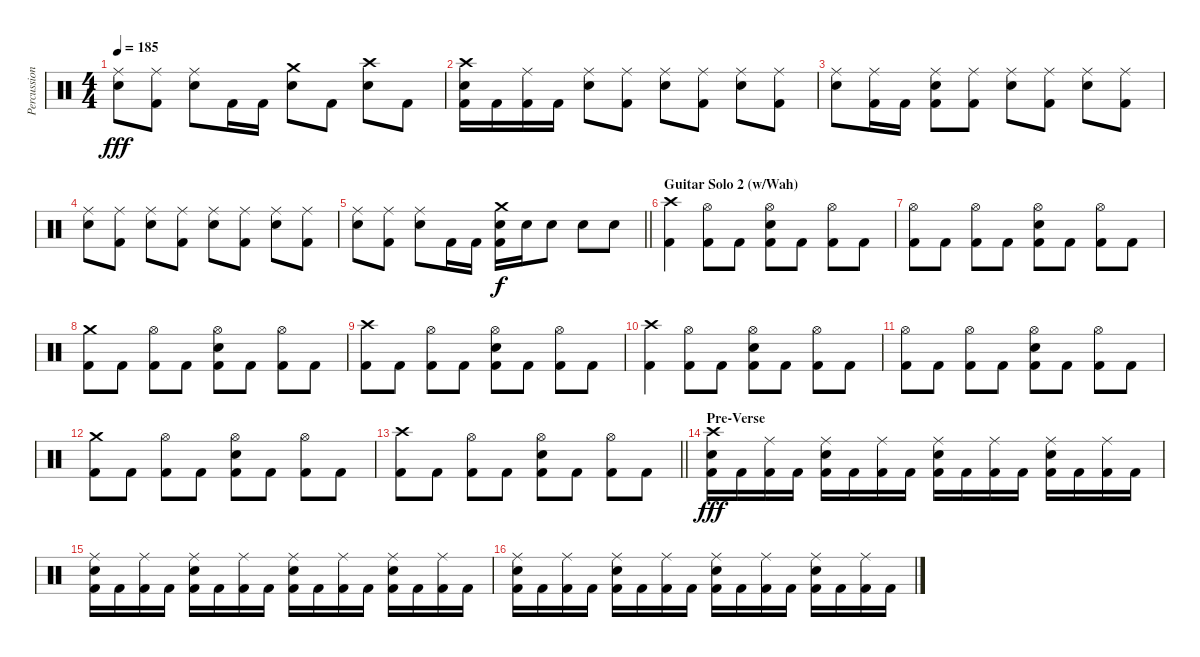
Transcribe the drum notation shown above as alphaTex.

\track ("Percussion" "Percussion") {instrument percussion}
\staff {score}
\articulation defaults
\ts (4 4)
\tempo 185
\clef neutral
\ks c
("Ride (middle)" "Electric Snare (hit)").8{dy fff} ("Ride (middle)" "Kick (hit) 2").8 ("Ride (middle)" "Electric Snare (hit)").8 "Kick (hit) 2".16 "Kick (hit) 2".16 ("Crash medium (hit)" "Electric Snare (hit)").8 "Kick (hit) 2".8 ("Crash high (hit)" "Electric Snare (hit)").8 "Kick (hit) 2".8 |
("Crash high (hit)" "Electric Snare (hit)" "Kick (hit) 2").16 "Kick (hit) 2".16 ("Ride (middle)" "Kick (hit) 2").16 "Kick (hit) 2".16 ("Ride (middle)" "Electric Snare (hit)").8 ("Ride (middle)" "Kick (hit) 2").8 ("Ride (middle)" "Electric Snare (hit)").8 ("Ride (middle)" "Kick (hit) 2").8 ("Ride (middle)" "Electric Snare (hit)").8 ("Ride (middle)" "Kick (hit) 2").8 |
("Ride (middle)" "Electric Snare (hit)").8 ("Ride (middle)" "Kick (hit) 2").16 "Kick (hit) 2".16 ("Ride (middle)" "Electric Snare (hit)" "Kick (hit) 2").8 ("Ride (middle)" "Kick (hit) 2").8 ("Ride (middle)" "Electric Snare (hit)").8 ("Ride (middle)" "Kick (hit) 2").8 ("Ride (middle)" "Electric Snare (hit)").8 ("Ride (middle)" "Kick (hit) 2").8 |
("Ride (middle)" "Electric Snare (hit)").8 ("Ride (middle)" "Kick (hit) 2").8 ("Ride (middle)" "Electric Snare (hit)").8 ("Ride (middle)" "Kick (hit) 2").8 ("Ride (middle)" "Electric Snare (hit)").8 ("Ride (middle)" "Kick (hit) 2").8 ("Ride (middle)" "Electric Snare (hit)").8 ("Ride (middle)" "Kick (hit) 2").8 |
\barLineRight lightlight
("Ride (middle)" "Electric Snare (hit)").8 ("Ride (middle)" "Kick (hit) 2").8 ("Ride (middle)" "Electric Snare (hit)").8 "Kick (hit) 2".16 "Kick (hit) 2".16 ("Crash medium (hit)" "Electric Snare (hit)" "Kick (hit) 2").16{dy f} "Electric Snare (hit)".16 "Electric Snare (hit)".8 "Electric Snare (hit)".8 "Electric Snare (hit)".8 |
\section ("" "Guitar Solo 2 (w/Wah)")
("Crash high (hit)" "Kick (hit) 2").4 ("Hi-Hat (open)" "Kick (hit) 2").8 "Kick (hit) 2".8 ("Hi-Hat (open)" "Electric Snare (hit)" "Kick (hit) 2").8 "Kick (hit) 2".8 ("Hi-Hat (open)" "Kick (hit) 2").8 "Kick (hit) 2".8 |
("Hi-Hat (open)" "Kick (hit) 2").8 "Kick (hit) 2".8 ("Hi-Hat (open)" "Kick (hit) 2").8 "Kick (hit) 2".8 ("Hi-Hat (open)" "Electric Snare (hit)" "Kick (hit) 2").8 "Kick (hit) 2".8 ("Hi-Hat (open)" "Kick (hit) 2").8 "Kick (hit) 2".8 |
("Crash medium (hit)" "Kick (hit) 2").8 "Kick (hit) 2".8 ("Hi-Hat (open)" "Kick (hit) 2").8 "Kick (hit) 2".8 ("Hi-Hat (open)" "Electric Snare (hit)" "Kick (hit) 2").8 "Kick (hit) 2".8 ("Hi-Hat (open)" "Kick (hit) 2").8 "Kick (hit) 2".8 |
("Crash high (hit)" "Kick (hit) 2").8 "Kick (hit) 2".8 ("Hi-Hat (open)" "Kick (hit) 2").8 "Kick (hit) 2".8 ("Hi-Hat (open)" "Electric Snare (hit)" "Kick (hit) 2").8 "Kick (hit) 2".8 ("Hi-Hat (open)" "Kick (hit) 2").8 "Kick (hit) 2".8 |
("Crash high (hit)" "Kick (hit) 2").4 ("Hi-Hat (open)" "Kick (hit) 2").8 "Kick (hit) 2".8 ("Hi-Hat (open)" "Electric Snare (hit)" "Kick (hit) 2").8 "Kick (hit) 2".8 ("Hi-Hat (open)" "Kick (hit) 2").8 "Kick (hit) 2".8 |
("Hi-Hat (open)" "Kick (hit) 2").8 "Kick (hit) 2".8 ("Hi-Hat (open)" "Kick (hit) 2").8 "Kick (hit) 2".8 ("Hi-Hat (open)" "Electric Snare (hit)" "Kick (hit) 2").8 "Kick (hit) 2".8 ("Hi-Hat (open)" "Kick (hit) 2").8 "Kick (hit) 2".8 |
("Crash medium (hit)" "Kick (hit) 2").8 "Kick (hit) 2".8 ("Hi-Hat (open)" "Kick (hit) 2").8 "Kick (hit) 2".8 ("Hi-Hat (open)" "Electric Snare (hit)" "Kick (hit) 2").8 "Kick (hit) 2".8 ("Hi-Hat (open)" "Kick (hit) 2").8 "Kick (hit) 2".8 |
\barLineRight lightlight
("Crash high (hit)" "Kick (hit) 2").8 "Kick (hit) 2".8 ("Hi-Hat (open)" "Kick (hit) 2").8 "Kick (hit) 2".8 ("Hi-Hat (open)" "Electric Snare (hit)" "Kick (hit) 2").8 "Kick (hit) 2".8 ("Hi-Hat (open)" "Kick (hit) 2").8 "Kick (hit) 2".8 |
\section ("" "Pre-Verse")
("Crash high (hit)" "Electric Snare (hit)" "Kick (hit) 2").16{dy fff} "Kick (hit) 2".16 ("Ride (middle)" "Kick (hit) 2").16 "Kick (hit) 2".16 ("Ride (middle)" "Electric Snare (hit)" "Kick (hit) 2").16 "Kick (hit) 2".16 ("Ride (middle)" "Kick (hit) 2").16 "Kick (hit) 2".16 ("Ride (middle)" "Electric Snare (hit)" "Kick (hit) 2").16 "Kick (hit) 2".16 ("Ride (middle)" "Kick (hit) 2").16 "Kick (hit) 2".16 ("Ride (middle)" "Electric Snare (hit)" "Kick (hit) 2").16 "Kick (hit) 2".16 ("Ride (middle)" "Kick (hit) 2").16 "Kick (hit) 2".16 |
("Ride (middle)" "Electric Snare (hit)" "Kick (hit) 2").16 "Kick (hit) 2".16 ("Ride (middle)" "Kick (hit) 2").16 "Kick (hit) 2".16 ("Ride (middle)" "Electric Snare (hit)" "Kick (hit) 2").16 "Kick (hit) 2".16 ("Ride (middle)" "Kick (hit) 2").16 "Kick (hit) 2".16 ("Ride (middle)" "Electric Snare (hit)" "Kick (hit) 2").16 "Kick (hit) 2".16 ("Ride (middle)" "Kick (hit) 2").16 "Kick (hit) 2".16 ("Ride (middle)" "Electric Snare (hit)" "Kick (hit) 2").16 "Kick (hit) 2".16 ("Ride (middle)" "Kick (hit) 2").16 "Kick (hit) 2".16 |
("Ride (middle)" "Electric Snare (hit)" "Kick (hit) 2").16 "Kick (hit) 2".16 ("Ride (middle)" "Kick (hit) 2").16 "Kick (hit) 2".16 ("Ride (middle)" "Electric Snare (hit)" "Kick (hit) 2").16 "Kick (hit) 2".16 ("Ride (middle)" "Kick (hit) 2").16 "Kick (hit) 2".16 ("Ride (middle)" "Electric Snare (hit)" "Kick (hit) 2").16 "Kick (hit) 2".16 ("Ride (middle)" "Kick (hit) 2").16 "Kick (hit) 2".16 ("Ride (middle)" "Electric Snare (hit)" "Kick (hit) 2").16 "Kick (hit) 2".16 ("Ride (middle)" "Kick (hit) 2").16 "Kick (hit) 2".16
